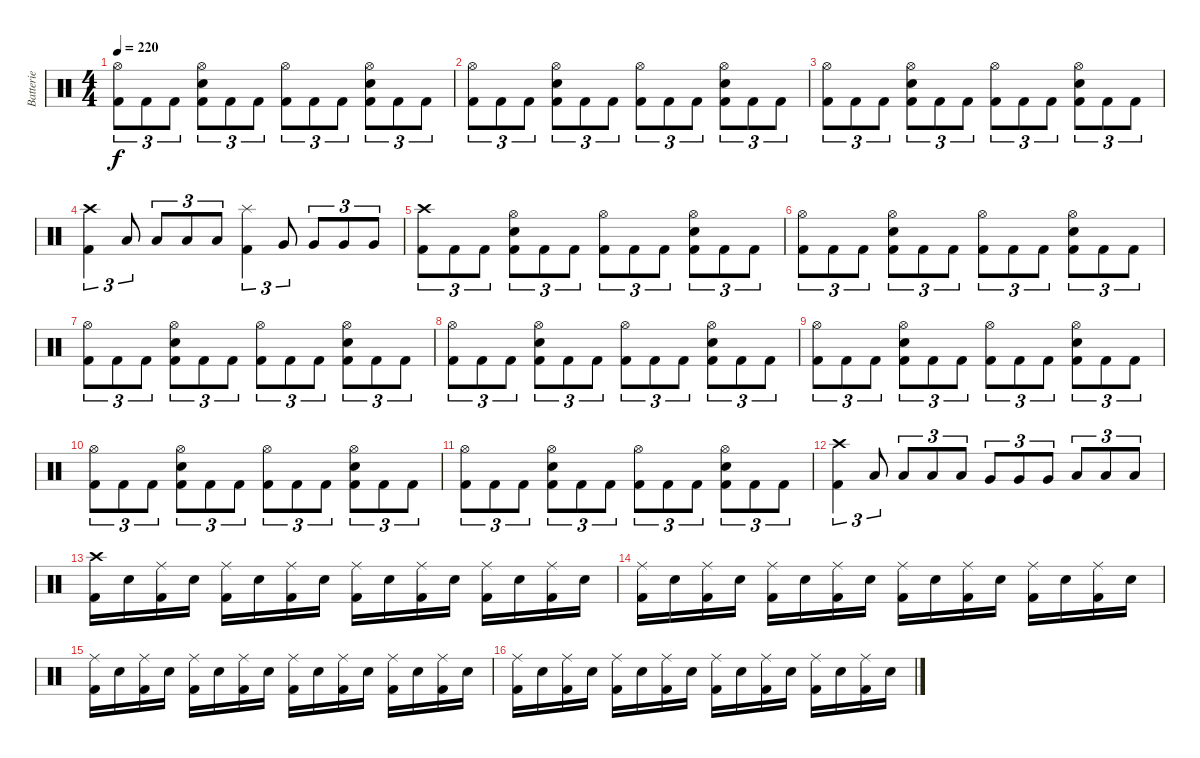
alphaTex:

\track ("Batterie" "Batterie") {instrument percussion}
\staff {score}
\articulation defaults
\ts (4 4)
\tempo 220
\clef neutral
\ks c
("Hi-Hat (open)" "Kick (hit) 2").8{tu (3 2) dy f} "Kick (hit) 2".8{tu (3 2)} "Kick (hit) 2".8{tu (3 2)} ("Hi-Hat (open)" "Electric Snare (hit)" "Kick (hit) 2").8{tu (3 2)} "Kick (hit) 2".8{tu (3 2)} "Kick (hit) 2".8{tu (3 2)} ("Hi-Hat (open)" "Kick (hit) 2").8{tu (3 2)} "Kick (hit) 2".8{tu (3 2)} "Kick (hit) 2".8{tu (3 2)} ("Hi-Hat (open)" "Electric Snare (hit)" "Kick (hit) 2").8{tu (3 2)} "Kick (hit) 2".8{tu (3 2)} "Kick (hit) 2".8{tu (3 2)} |
("Hi-Hat (open)" "Kick (hit) 2").8{tu (3 2)} "Kick (hit) 2".8{tu (3 2)} "Kick (hit) 2".8{tu (3 2)} ("Hi-Hat (open)" "Electric Snare (hit)" "Kick (hit) 2").8{tu (3 2)} "Kick (hit) 2".8{tu (3 2)} "Kick (hit) 2".8{tu (3 2)} ("Hi-Hat (open)" "Kick (hit) 2").8{tu (3 2)} "Kick (hit) 2".8{tu (3 2)} "Kick (hit) 2".8{tu (3 2)} ("Hi-Hat (open)" "Electric Snare (hit)" "Kick (hit) 2").8{tu (3 2)} "Kick (hit) 2".8{tu (3 2)} "Kick (hit) 2".8{tu (3 2)} |
("Hi-Hat (open)" "Kick (hit) 2").8{tu (3 2)} "Kick (hit) 2".8{tu (3 2)} "Kick (hit) 2".8{tu (3 2)} ("Hi-Hat (open)" "Electric Snare (hit)" "Kick (hit) 2").8{tu (3 2)} "Kick (hit) 2".8{tu (3 2)} "Kick (hit) 2".8{tu (3 2)} ("Hi-Hat (open)" "Kick (hit) 2").8{tu (3 2)} "Kick (hit) 2".8{tu (3 2)} "Kick (hit) 2".8{tu (3 2)} ("Hi-Hat (open)" "Electric Snare (hit)" "Kick (hit) 2").8{tu (3 2)} "Kick (hit) 2".8{tu (3 2)} "Kick (hit) 2".8{tu (3 2)} |
("Crash high (hit)" "Kick (hit) 2").4{tu (3 2)} "Low Tom (hit)".8{tu (3 2)} "Low Tom (hit)".8{tu (3 2)} "Low Tom (hit)".8{tu (3 2)} "Low Tom (hit)".8{tu (3 2)} ("Splash (hit)" "Kick (hit) 2").4{tu (3 2)} "Very Low Tom (hit)".8{tu (3 2)} "Very Low Tom (hit)".8{tu (3 2)} "Very Low Tom (hit)".8{tu (3 2)} "Very Low Tom (hit)".8{tu (3 2)} |
("Crash high (hit)" "Kick (hit) 2").8{tu (3 2)} "Kick (hit) 2".8{tu (3 2)} "Kick (hit) 2".8{tu (3 2)} ("Hi-Hat (open)" "Electric Snare (hit)" "Kick (hit) 2").8{tu (3 2)} "Kick (hit) 2".8{tu (3 2)} "Kick (hit) 2".8{tu (3 2)} ("Hi-Hat (open)" "Kick (hit) 2").8{tu (3 2)} "Kick (hit) 2".8{tu (3 2)} "Kick (hit) 2".8{tu (3 2)} ("Hi-Hat (open)" "Electric Snare (hit)" "Kick (hit) 2").8{tu (3 2)} "Kick (hit) 2".8{tu (3 2)} "Kick (hit) 2".8{tu (3 2)} |
("Hi-Hat (open)" "Kick (hit) 2").8{tu (3 2)} "Kick (hit) 2".8{tu (3 2)} "Kick (hit) 2".8{tu (3 2)} ("Hi-Hat (open)" "Electric Snare (hit)" "Kick (hit) 2").8{tu (3 2)} "Kick (hit) 2".8{tu (3 2)} "Kick (hit) 2".8{tu (3 2)} ("Hi-Hat (open)" "Kick (hit) 2").8{tu (3 2)} "Kick (hit) 2".8{tu (3 2)} "Kick (hit) 2".8{tu (3 2)} ("Hi-Hat (open)" "Electric Snare (hit)" "Kick (hit) 2").8{tu (3 2)} "Kick (hit) 2".8{tu (3 2)} "Kick (hit) 2".8{tu (3 2)} |
("Hi-Hat (open)" "Kick (hit) 2").8{tu (3 2)} "Kick (hit) 2".8{tu (3 2)} "Kick (hit) 2".8{tu (3 2)} ("Hi-Hat (open)" "Electric Snare (hit)" "Kick (hit) 2").8{tu (3 2)} "Kick (hit) 2".8{tu (3 2)} "Kick (hit) 2".8{tu (3 2)} ("Hi-Hat (open)" "Kick (hit) 2").8{tu (3 2)} "Kick (hit) 2".8{tu (3 2)} "Kick (hit) 2".8{tu (3 2)} ("Hi-Hat (open)" "Electric Snare (hit)" "Kick (hit) 2").8{tu (3 2)} "Kick (hit) 2".8{tu (3 2)} "Kick (hit) 2".8{tu (3 2)} |
("Hi-Hat (open)" "Kick (hit) 2").8{tu (3 2)} "Kick (hit) 2".8{tu (3 2)} "Kick (hit) 2".8{tu (3 2)} ("Hi-Hat (open)" "Electric Snare (hit)" "Kick (hit) 2").8{tu (3 2)} "Kick (hit) 2".8{tu (3 2)} "Kick (hit) 2".8{tu (3 2)} ("Hi-Hat (open)" "Kick (hit) 2").8{tu (3 2)} "Kick (hit) 2".8{tu (3 2)} "Kick (hit) 2".8{tu (3 2)} ("Hi-Hat (open)" "Electric Snare (hit)" "Kick (hit) 2").8{tu (3 2)} "Kick (hit) 2".8{tu (3 2)} "Kick (hit) 2".8{tu (3 2)} |
("Hi-Hat (open)" "Kick (hit) 2").8{tu (3 2)} "Kick (hit) 2".8{tu (3 2)} "Kick (hit) 2".8{tu (3 2)} ("Hi-Hat (open)" "Electric Snare (hit)" "Kick (hit) 2").8{tu (3 2)} "Kick (hit) 2".8{tu (3 2)} "Kick (hit) 2".8{tu (3 2)} ("Hi-Hat (open)" "Kick (hit) 2").8{tu (3 2)} "Kick (hit) 2".8{tu (3 2)} "Kick (hit) 2".8{tu (3 2)} ("Hi-Hat (open)" "Electric Snare (hit)" "Kick (hit) 2").8{tu (3 2)} "Kick (hit) 2".8{tu (3 2)} "Kick (hit) 2".8{tu (3 2)} |
("Hi-Hat (open)" "Kick (hit) 2").8{tu (3 2)} "Kick (hit) 2".8{tu (3 2)} "Kick (hit) 2".8{tu (3 2)} ("Hi-Hat (open)" "Electric Snare (hit)" "Kick (hit) 2").8{tu (3 2)} "Kick (hit) 2".8{tu (3 2)} "Kick (hit) 2".8{tu (3 2)} ("Hi-Hat (open)" "Kick (hit) 2").8{tu (3 2)} "Kick (hit) 2".8{tu (3 2)} "Kick (hit) 2".8{tu (3 2)} ("Hi-Hat (open)" "Electric Snare (hit)" "Kick (hit) 2").8{tu (3 2)} "Kick (hit) 2".8{tu (3 2)} "Kick (hit) 2".8{tu (3 2)} |
("Hi-Hat (open)" "Kick (hit) 2").8{tu (3 2)} "Kick (hit) 2".8{tu (3 2)} "Kick (hit) 2".8{tu (3 2)} ("Hi-Hat (open)" "Electric Snare (hit)" "Kick (hit) 2").8{tu (3 2)} "Kick (hit) 2".8{tu (3 2)} "Kick (hit) 2".8{tu (3 2)} ("Hi-Hat (open)" "Kick (hit) 2").8{tu (3 2)} "Kick (hit) 2".8{tu (3 2)} "Kick (hit) 2".8{tu (3 2)} ("Hi-Hat (open)" "Electric Snare (hit)" "Kick (hit) 2").8{tu (3 2)} "Kick (hit) 2".8{tu (3 2)} "Kick (hit) 2".8{tu (3 2)} |
("Crash high (hit)" "Kick (hit) 2").4{tu (3 2)} "Low Tom (hit)".8{tu (3 2)} "Low Tom (hit)".8{tu (3 2)} "Low Tom (hit)".8{tu (3 2)} "Low Tom (hit)".8{tu (3 2)} "Very Low Tom (hit)".8{tu (3 2)} "Very Low Tom (hit)".8{tu (3 2)} "Very Low Tom (hit)".8{tu (3 2)} "Low Floor Tom (hit)".8{tu (3 2)} "Low Floor Tom (hit)".8{tu (3 2)} "Low Floor Tom (hit)".8{tu (3 2)} |
("Crash high (hit)" "Kick (hit) 2").16 "Electric Snare (hit)".16 ("Ride (middle)" "Kick (hit) 2").16 "Electric Snare (hit)".16 ("Ride (middle)" "Kick (hit) 2").16 "Electric Snare (hit)".16 ("Ride (middle)" "Kick (hit) 2").16 "Electric Snare (hit)".16 ("Ride (middle)" "Kick (hit) 2").16 "Electric Snare (hit)".16 ("Ride (middle)" "Kick (hit) 2").16 "Electric Snare (hit)".16 ("Ride (middle)" "Kick (hit) 2").16 "Electric Snare (hit)".16 ("Ride (middle)" "Kick (hit) 2").16 "Electric Snare (hit)".16 |
("Ride (middle)" "Kick (hit) 2").16 "Electric Snare (hit)".16 ("Ride (middle)" "Kick (hit) 2").16 "Electric Snare (hit)".16 ("Ride (middle)" "Kick (hit) 2").16 "Electric Snare (hit)".16 ("Ride (middle)" "Kick (hit) 2").16 "Electric Snare (hit)".16 ("Ride (middle)" "Kick (hit) 2").16 "Electric Snare (hit)".16 ("Ride (middle)" "Kick (hit) 2").16 "Electric Snare (hit)".16 ("Ride (middle)" "Kick (hit) 2").16 "Electric Snare (hit)".16 ("Ride (middle)" "Kick (hit) 2").16 "Electric Snare (hit)".16 |
("Ride (middle)" "Kick (hit) 2").16 "Electric Snare (hit)".16 ("Ride (middle)" "Kick (hit) 2").16 "Electric Snare (hit)".16 ("Ride (middle)" "Kick (hit) 2").16 "Electric Snare (hit)".16 ("Ride (middle)" "Kick (hit) 2").16 "Electric Snare (hit)".16 ("Ride (middle)" "Kick (hit) 2").16 "Electric Snare (hit)".16 ("Ride (middle)" "Kick (hit) 2").16 "Electric Snare (hit)".16 ("Ride (middle)" "Kick (hit) 2").16 "Electric Snare (hit)".16 ("Ride (middle)" "Kick (hit) 2").16 "Electric Snare (hit)".16 |
("Ride (middle)" "Kick (hit) 2").16 "Electric Snare (hit)".16 ("Ride (middle)" "Kick (hit) 2").16 "Electric Snare (hit)".16 ("Ride (middle)" "Kick (hit) 2").16 "Electric Snare (hit)".16 ("Ride (middle)" "Kick (hit) 2").16 "Electric Snare (hit)".16 ("Ride (middle)" "Kick (hit) 2").16 "Electric Snare (hit)".16 ("Ride (middle)" "Kick (hit) 2").16 "Electric Snare (hit)".16 ("Ride (middle)" "Kick (hit) 2").16 "Electric Snare (hit)".16 ("Ride (middle)" "Kick (hit) 2").16 "Electric Snare (hit)".16
